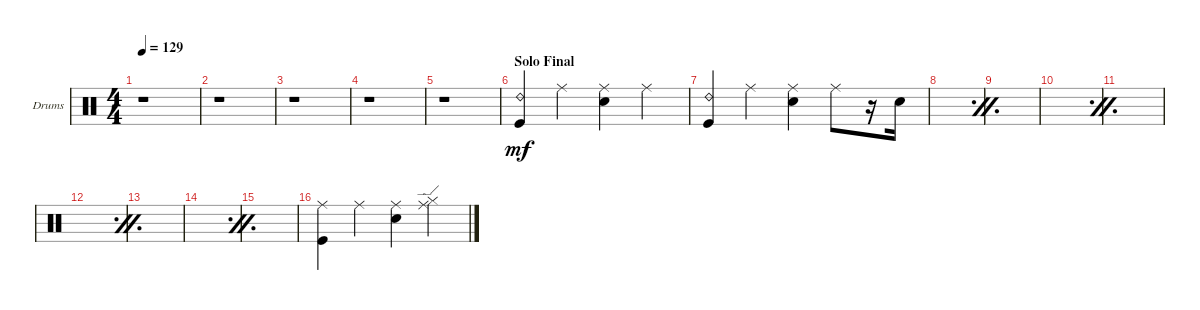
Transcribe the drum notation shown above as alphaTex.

\bracketExtendMode groupsimilarinstruments
\firstSystemTrackNameOrientation horizontal
\otherSystemsTrackNameOrientation horizontal
\track ("Drumkit" "Drums") {instrument percussion}
\staff {score}
\articulation defaults
\ts (4 4)
\tempo 129
\clef neutral
\ks c
r.1{dy mf} |
r.1 |
r.1 |
r.1 |
r.1 |
\section ("" "Solo Final")
("Ride (bell) 2" "Kick (hit)").4 "Ride (middle)".4 ("Ride (middle)" "Snare (hit) 2").4 "Ride (middle)".4 |
("Ride (bell) 2" "Kick (hit)").4 "Ride (middle)".4 ("Ride (middle)" "Snare (hit) 2").4 "Ride (middle)".8 r.16 "Snare (hit) 2".16 |
\simile firstofdouble
|
\simile secondofdouble
|
\simile firstofdouble
|
\simile secondofdouble
|
\simile firstofdouble
|
\simile secondofdouble
|
\simile firstofdouble
|
\simile secondofdouble
|
\simile none
("Ride (middle)" "Kick (hit)").4 "Ride (middle)".4 ("Ride (middle)" "Snare (hit) 2").4 ("Ride (edge)" "Hi-Hat (closed)").4
